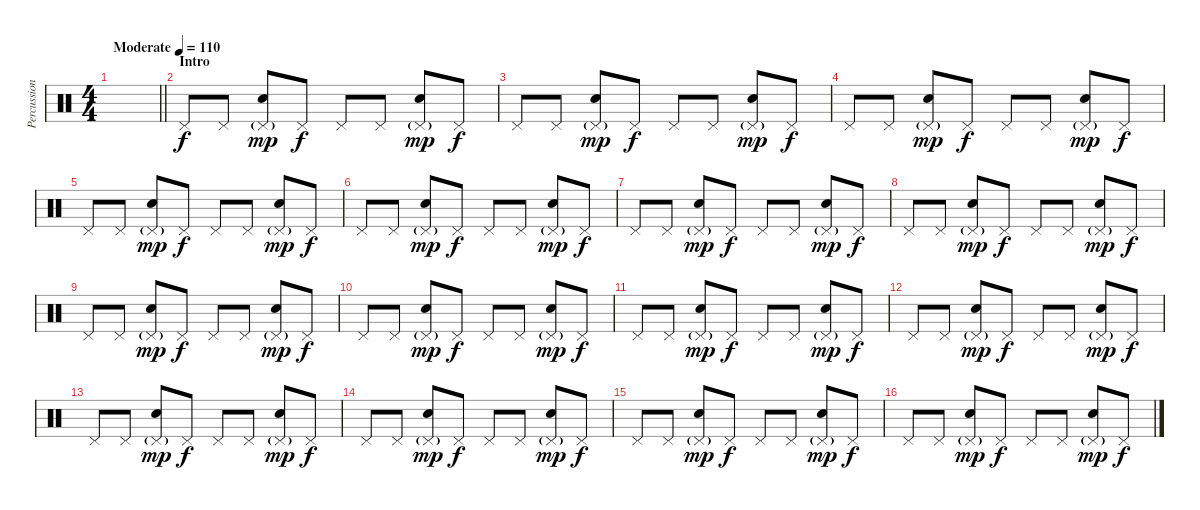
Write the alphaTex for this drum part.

\track ("Percussion" "Percussion") {instrument percussion}
\staff {score}
\articulation defaults
\ts (4 4)
\tempo (110 "Moderate")
\clef neutral
\barLineRight lightlight
\ks c
|
\section ("" "Intro")
"Pedal Hi-Hat (hit)".8 "Pedal Hi-Hat (hit)".8 ("Pedal Hi-Hat (hit)"{g} "Electric Snare (hit)").8{dy mp} "Pedal Hi-Hat (hit)".8{dy f} "Pedal Hi-Hat (hit)".8 "Pedal Hi-Hat (hit)".8 ("Pedal Hi-Hat (hit)"{g} "Electric Snare (hit)").8{dy mp} "Pedal Hi-Hat (hit)".8{dy f} |
"Pedal Hi-Hat (hit)".8 "Pedal Hi-Hat (hit)".8 ("Pedal Hi-Hat (hit)"{g} "Electric Snare (hit)").8{dy mp} "Pedal Hi-Hat (hit)".8{dy f} "Pedal Hi-Hat (hit)".8 "Pedal Hi-Hat (hit)".8 ("Pedal Hi-Hat (hit)"{g} "Electric Snare (hit)").8{dy mp} "Pedal Hi-Hat (hit)".8{dy f} |
"Pedal Hi-Hat (hit)".8 "Pedal Hi-Hat (hit)".8 ("Pedal Hi-Hat (hit)"{g} "Electric Snare (hit)").8{dy mp} "Pedal Hi-Hat (hit)".8{dy f} "Pedal Hi-Hat (hit)".8 "Pedal Hi-Hat (hit)".8 ("Pedal Hi-Hat (hit)"{g} "Electric Snare (hit)").8{dy mp} "Pedal Hi-Hat (hit)".8{dy f} |
"Pedal Hi-Hat (hit)".8 "Pedal Hi-Hat (hit)".8 ("Pedal Hi-Hat (hit)"{g} "Electric Snare (hit)").8{dy mp} "Pedal Hi-Hat (hit)".8{dy f} "Pedal Hi-Hat (hit)".8 "Pedal Hi-Hat (hit)".8 ("Pedal Hi-Hat (hit)"{g} "Electric Snare (hit)").8{dy mp} "Pedal Hi-Hat (hit)".8{dy f} |
"Pedal Hi-Hat (hit)".8 "Pedal Hi-Hat (hit)".8 ("Pedal Hi-Hat (hit)"{g} "Electric Snare (hit)").8{dy mp} "Pedal Hi-Hat (hit)".8{dy f} "Pedal Hi-Hat (hit)".8 "Pedal Hi-Hat (hit)".8 ("Pedal Hi-Hat (hit)"{g} "Electric Snare (hit)").8{dy mp} "Pedal Hi-Hat (hit)".8{dy f} |
"Pedal Hi-Hat (hit)".8 "Pedal Hi-Hat (hit)".8 ("Pedal Hi-Hat (hit)"{g} "Electric Snare (hit)").8{dy mp} "Pedal Hi-Hat (hit)".8{dy f} "Pedal Hi-Hat (hit)".8 "Pedal Hi-Hat (hit)".8 ("Pedal Hi-Hat (hit)"{g} "Electric Snare (hit)").8{dy mp} "Pedal Hi-Hat (hit)".8{dy f} |
"Pedal Hi-Hat (hit)".8 "Pedal Hi-Hat (hit)".8 ("Pedal Hi-Hat (hit)"{g} "Electric Snare (hit)").8{dy mp} "Pedal Hi-Hat (hit)".8{dy f} "Pedal Hi-Hat (hit)".8 "Pedal Hi-Hat (hit)".8 ("Pedal Hi-Hat (hit)"{g} "Electric Snare (hit)").8{dy mp} "Pedal Hi-Hat (hit)".8{dy f} |
"Pedal Hi-Hat (hit)".8 "Pedal Hi-Hat (hit)".8 ("Pedal Hi-Hat (hit)"{g} "Electric Snare (hit)").8{dy mp} "Pedal Hi-Hat (hit)".8{dy f} "Pedal Hi-Hat (hit)".8 "Pedal Hi-Hat (hit)".8 ("Pedal Hi-Hat (hit)"{g} "Electric Snare (hit)").8{dy mp} "Pedal Hi-Hat (hit)".8{dy f} |
"Pedal Hi-Hat (hit)".8 "Pedal Hi-Hat (hit)".8 ("Pedal Hi-Hat (hit)"{g} "Electric Snare (hit)").8{dy mp} "Pedal Hi-Hat (hit)".8{dy f} "Pedal Hi-Hat (hit)".8 "Pedal Hi-Hat (hit)".8 ("Pedal Hi-Hat (hit)"{g} "Electric Snare (hit)").8{dy mp} "Pedal Hi-Hat (hit)".8{dy f} |
"Pedal Hi-Hat (hit)".8 "Pedal Hi-Hat (hit)".8 ("Pedal Hi-Hat (hit)"{g} "Electric Snare (hit)").8{dy mp} "Pedal Hi-Hat (hit)".8{dy f} "Pedal Hi-Hat (hit)".8 "Pedal Hi-Hat (hit)".8 ("Pedal Hi-Hat (hit)"{g} "Electric Snare (hit)").8{dy mp} "Pedal Hi-Hat (hit)".8{dy f} |
"Pedal Hi-Hat (hit)".8 "Pedal Hi-Hat (hit)".8 ("Pedal Hi-Hat (hit)"{g} "Electric Snare (hit)").8{dy mp} "Pedal Hi-Hat (hit)".8{dy f} "Pedal Hi-Hat (hit)".8 "Pedal Hi-Hat (hit)".8 ("Pedal Hi-Hat (hit)"{g} "Electric Snare (hit)").8{dy mp} "Pedal Hi-Hat (hit)".8{dy f} |
"Pedal Hi-Hat (hit)".8 "Pedal Hi-Hat (hit)".8 ("Pedal Hi-Hat (hit)"{g} "Electric Snare (hit)").8{dy mp} "Pedal Hi-Hat (hit)".8{dy f} "Pedal Hi-Hat (hit)".8 "Pedal Hi-Hat (hit)".8 ("Pedal Hi-Hat (hit)"{g} "Electric Snare (hit)").8{dy mp} "Pedal Hi-Hat (hit)".8{dy f} |
"Pedal Hi-Hat (hit)".8 "Pedal Hi-Hat (hit)".8 ("Pedal Hi-Hat (hit)"{g} "Electric Snare (hit)").8{dy mp} "Pedal Hi-Hat (hit)".8{dy f} "Pedal Hi-Hat (hit)".8 "Pedal Hi-Hat (hit)".8 ("Pedal Hi-Hat (hit)"{g} "Electric Snare (hit)").8{dy mp} "Pedal Hi-Hat (hit)".8{dy f} |
"Pedal Hi-Hat (hit)".8 "Pedal Hi-Hat (hit)".8 ("Pedal Hi-Hat (hit)"{g} "Electric Snare (hit)").8{dy mp} "Pedal Hi-Hat (hit)".8{dy f} "Pedal Hi-Hat (hit)".8 "Pedal Hi-Hat (hit)".8 ("Pedal Hi-Hat (hit)"{g} "Electric Snare (hit)").8{dy mp} "Pedal Hi-Hat (hit)".8{dy f} |
"Pedal Hi-Hat (hit)".8 "Pedal Hi-Hat (hit)".8 ("Pedal Hi-Hat (hit)"{g} "Electric Snare (hit)").8{dy mp} "Pedal Hi-Hat (hit)".8{dy f} "Pedal Hi-Hat (hit)".8 "Pedal Hi-Hat (hit)".8 ("Pedal Hi-Hat (hit)"{g} "Electric Snare (hit)").8{dy mp} "Pedal Hi-Hat (hit)".8{dy f}
